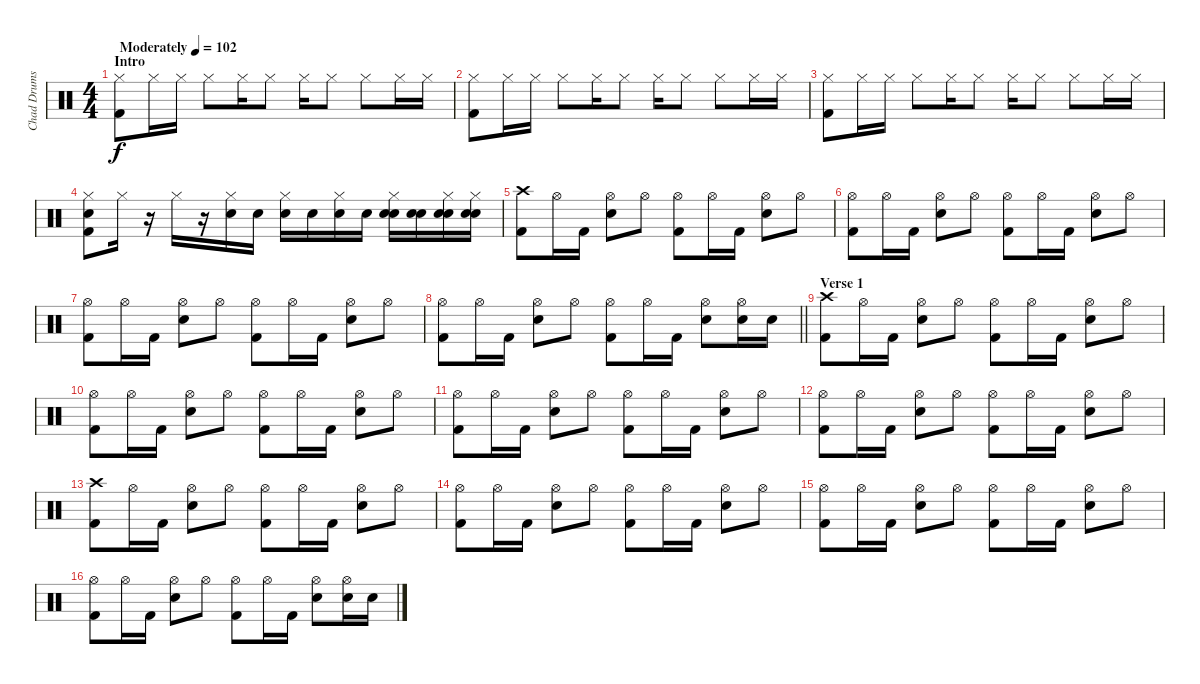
\track ("Chad Drums)" "Chad Drums") {instrument percussion}
\staff {score}
\articulation defaults
\ts (4 4)
\section ("" "Intro")
\tempo (102 "Moderately")
\clef neutral
\ks c
("Hi-Hat (closed)" "Kick (hit) 2").8{dy f} "Hi-Hat (closed)".16 "Hi-Hat (closed)".16 "Hi-Hat (closed)".8 "Hi-Hat (closed)".16 "Hi-Hat (closed)".8 "Hi-Hat (closed)".16 "Hi-Hat (closed)".8 "Hi-Hat (closed)".8 "Hi-Hat (closed)".16 "Hi-Hat (closed)".16 |
("Hi-Hat (closed)" "Kick (hit) 2").8 "Hi-Hat (closed)".16 "Hi-Hat (closed)".16 "Hi-Hat (closed)".8 "Hi-Hat (closed)".16 "Hi-Hat (closed)".8 "Hi-Hat (closed)".16 "Hi-Hat (closed)".8 "Hi-Hat (closed)".8 "Hi-Hat (closed)".16 "Hi-Hat (closed)".16 |
("Hi-Hat (closed)" "Kick (hit) 2").8 "Hi-Hat (closed)".16 "Hi-Hat (closed)".16 "Hi-Hat (closed)".8 "Hi-Hat (closed)".16 "Hi-Hat (closed)".8 "Hi-Hat (closed)".16 "Hi-Hat (closed)".8 "Hi-Hat (closed)".8 "Hi-Hat (closed)".16 "Hi-Hat (closed)".16 |
("Hi-Hat (closed)" "Snare (hit) 2" "Kick (hit) 2").8 "Hi-Hat (closed)".16 r.16 "Hi-Hat (closed)".16 r.16 ("Hi-Hat (closed)" "Snare (hit) 2").16 "Snare (hit) 2".16 ("Hi-Hat (closed)" "Snare (hit) 2").16 "Snare (hit) 2".16 ("Hi-Hat (closed)" "Snare (hit) 2").16 "Snare (hit) 2".16 ("Hi-Hat (closed)" "Snare (hit) 2" "Electric Snare (hit)").16 ("Snare (hit) 2" "Electric Snare (hit)").16 ("Hi-Hat (closed)" "Snare (hit) 2" "Electric Snare (hit)").16 ("Hi-Hat (closed)" "Snare (hit) 2" "Electric Snare (hit)").16 |
("Crash high (hit)" "Kick (hit) 2").8 "Hi-Hat (open)".16 "Kick (hit) 2".16 ("Hi-Hat (open)" "Snare (hit) 2").8 "Hi-Hat (open)".8 ("Hi-Hat (open)" "Kick (hit) 2").8 "Hi-Hat (open)".16 "Kick (hit) 2".16 ("Hi-Hat (open)" "Snare (hit) 2").8 "Hi-Hat (open)".8 |
("Hi-Hat (open)" "Kick (hit) 2").8 "Hi-Hat (open)".16 "Kick (hit) 2".16 ("Hi-Hat (open)" "Snare (hit) 2").8 "Hi-Hat (open)".8 ("Hi-Hat (open)" "Kick (hit) 2").8 "Hi-Hat (open)".16 "Kick (hit) 2".16 ("Hi-Hat (open)" "Snare (hit) 2").8 "Hi-Hat (open)".8 |
("Hi-Hat (open)" "Kick (hit) 2").8 "Hi-Hat (open)".16 "Kick (hit) 2".16 ("Hi-Hat (open)" "Snare (hit) 2").8 "Hi-Hat (open)".8 ("Hi-Hat (open)" "Kick (hit) 2").8 "Hi-Hat (open)".16 "Kick (hit) 2".16 ("Hi-Hat (open)" "Snare (hit) 2").8 "Hi-Hat (open)".8 |
\barLineRight lightlight
("Hi-Hat (open)" "Kick (hit) 2").8 "Hi-Hat (open)".16 "Kick (hit) 2".16 ("Hi-Hat (open)" "Snare (hit) 2").8 "Hi-Hat (open)".8 ("Hi-Hat (open)" "Kick (hit) 2").8 "Hi-Hat (open)".16 "Kick (hit) 2".16 ("Hi-Hat (open)" "Snare (hit) 2").8 ("Hi-Hat (open)" "Snare (hit) 2").16 "Snare (hit) 2".16 |
\section ("" "Verse 1")
("Crash high (hit)" "Kick (hit) 2").8 "Hi-Hat (open)".16 "Kick (hit) 2".16 ("Hi-Hat (open)" "Snare (hit) 2").8 "Hi-Hat (open)".8 ("Hi-Hat (open)" "Kick (hit) 2").8 "Hi-Hat (open)".16 "Kick (hit) 2".16 ("Hi-Hat (open)" "Snare (hit) 2").8 "Hi-Hat (open)".8 |
("Hi-Hat (open)" "Kick (hit) 2").8 "Hi-Hat (open)".16 "Kick (hit) 2".16 ("Hi-Hat (open)" "Snare (hit) 2").8 "Hi-Hat (open)".8 ("Hi-Hat (open)" "Kick (hit) 2").8 "Hi-Hat (open)".16 "Kick (hit) 2".16 ("Hi-Hat (open)" "Snare (hit) 2").8 "Hi-Hat (open)".8 |
("Hi-Hat (open)" "Kick (hit) 2").8 "Hi-Hat (open)".16 "Kick (hit) 2".16 ("Hi-Hat (open)" "Snare (hit) 2").8 "Hi-Hat (open)".8 ("Hi-Hat (open)" "Kick (hit) 2").8 "Hi-Hat (open)".16 "Kick (hit) 2".16 ("Hi-Hat (open)" "Snare (hit) 2").8 "Hi-Hat (open)".8 |
("Hi-Hat (open)" "Kick (hit) 2").8 "Hi-Hat (open)".16 "Kick (hit) 2".16 ("Hi-Hat (open)" "Snare (hit) 2").8 "Hi-Hat (open)".8 ("Hi-Hat (open)" "Kick (hit) 2").8 "Hi-Hat (open)".16 "Kick (hit) 2".16 ("Hi-Hat (open)" "Snare (hit) 2").8 "Hi-Hat (open)".8 |
("Crash high (hit)" "Kick (hit) 2").8 "Hi-Hat (open)".16 "Kick (hit) 2".16 ("Hi-Hat (open)" "Snare (hit) 2").8 "Hi-Hat (open)".8 ("Hi-Hat (open)" "Kick (hit) 2").8 "Hi-Hat (open)".16 "Kick (hit) 2".16 ("Hi-Hat (open)" "Snare (hit) 2").8 "Hi-Hat (open)".8 |
("Hi-Hat (open)" "Kick (hit) 2").8 "Hi-Hat (open)".16 "Kick (hit) 2".16 ("Hi-Hat (open)" "Snare (hit) 2").8 "Hi-Hat (open)".8 ("Hi-Hat (open)" "Kick (hit) 2").8 "Hi-Hat (open)".16 "Kick (hit) 2".16 ("Hi-Hat (open)" "Snare (hit) 2").8 "Hi-Hat (open)".8 |
("Hi-Hat (open)" "Kick (hit) 2").8 "Hi-Hat (open)".16 "Kick (hit) 2".16 ("Hi-Hat (open)" "Snare (hit) 2").8 "Hi-Hat (open)".8 ("Hi-Hat (open)" "Kick (hit) 2").8 "Hi-Hat (open)".16 "Kick (hit) 2".16 ("Hi-Hat (open)" "Snare (hit) 2").8 "Hi-Hat (open)".8 |
("Hi-Hat (open)" "Kick (hit) 2").8 "Hi-Hat (open)".16 "Kick (hit) 2".16 ("Hi-Hat (open)" "Snare (hit) 2").8 "Hi-Hat (open)".8 ("Hi-Hat (open)" "Kick (hit) 2").8 "Hi-Hat (open)".16 "Kick (hit) 2".16 ("Hi-Hat (open)" "Snare (hit) 2").8 ("Hi-Hat (open)" "Snare (hit) 2").16 "Snare (hit) 2".16
